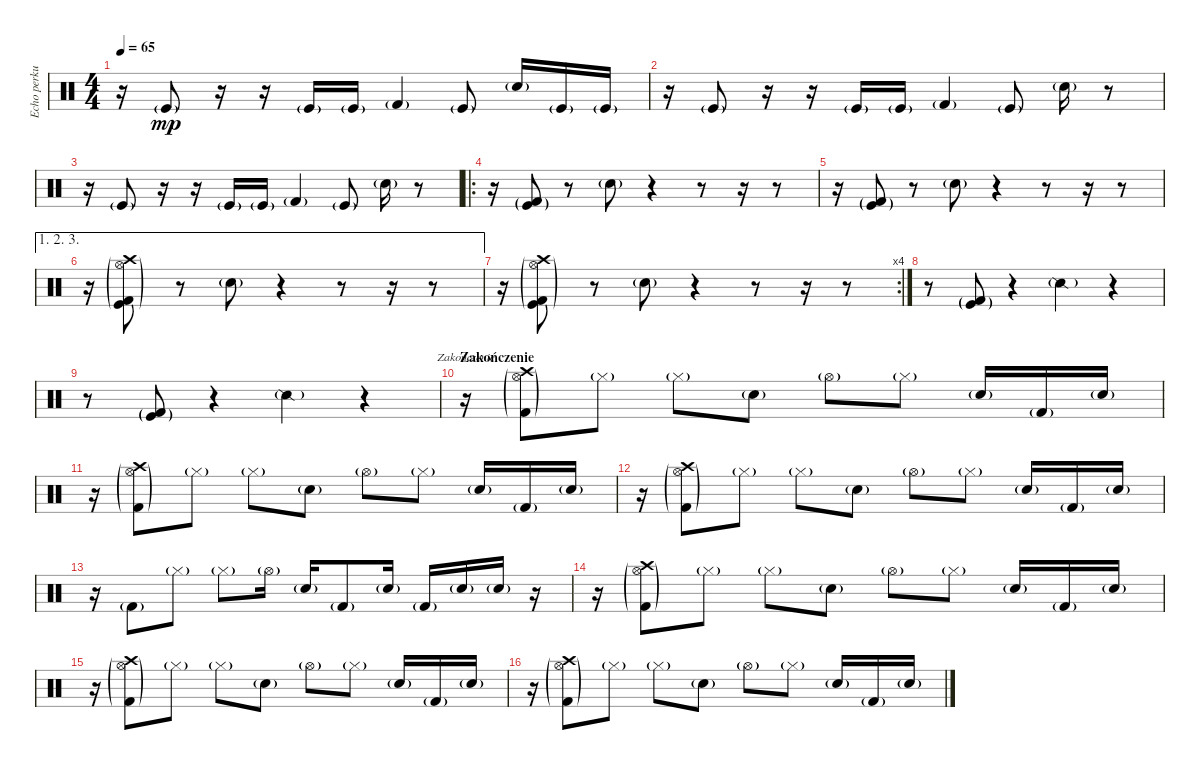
\track ("Echo perkusji 1" "Echo perku") {instrument percussion}
\staff {score}
\articulation defaults
\chord ("Zakończenie")
\ts (4 4)
\tempo 65
\clef neutral
\ks c
r.16{dy mp} "Kick (hit)"{g}.8 r.16 r.16 "Kick (hit)"{g}.16 "Kick (hit)"{g}.16 "Kick (hit) 2"{g}.4 "Kick (hit)"{g}.8 "Snare (hit) 2"{g}.16 "Kick (hit)"{g}.16 "Kick (hit)"{g}.16 |
r.16 "Kick (hit)"{g}.8 r.16 r.16 "Kick (hit)"{g}.16 "Kick (hit)"{g}.16 "Kick (hit) 2"{g}.4 "Kick (hit)"{g}.8 "Snare (hit) 2"{g}.16 r.8 |
r.16 "Kick (hit)"{g}.8 r.16 r.16 "Kick (hit)"{g}.16 "Kick (hit)"{g}.16 "Kick (hit) 2"{g}.4 "Kick (hit)"{g}.8 "Snare (hit) 2"{g}.16 r.8 |
\ro
r.16 ("Kick (hit)"{g} "Kick (hit) 2"{g}).8 r.8 "Snare (hit) 2"{g}.8 r.4 r.8 r.16 r.8 |
r.16 ("Kick (hit)"{g} "Kick (hit) 2"{g}).8 r.8 "Snare (hit) 2"{g}.8 r.4 r.8 r.16 r.8 |
\ae (1 2 3)
r.16 ("Kick (hit)"{g} "Kick (hit) 2"{g} "Hi-Hat (open)"{g} "Crash high (hit)"{g}).8 r.8 "Snare (hit) 2"{g}.8 r.4 r.8 r.16 r.8 |
\rc 4
r.16 ("Kick (hit)"{g} "Kick (hit) 2"{g} "Hi-Hat (open)"{g} "Crash high (hit)"{g}).8 r.8 "Snare (hit) 2"{g}.8 r.4 r.8 r.16 r.8 |
r.8 ("Kick (hit)"{g} "Kick (hit) 2"{g}).8 r.4 "Snare (side stick) 2"{g}.4 r.4 |
r.8 ("Kick (hit)"{g} "Kick (hit) 2"{g}).8 r.4 "Snare (side stick) 2"{g}.4 r.4 |
\section ("" "Zakończenie")
r.16{ch "Zakończenie"} ("Kick (hit) 2"{g} "Hi-Hat (open)"{g} "Crash high (hit)"{g}).8 "Hi-Hat (closed)"{g}.8 "Hi-Hat (closed)"{g}.8 "Snare (hit) 2"{g}.8 "Hi-Hat (open)"{g}.8 "Hi-Hat (closed)"{g}.8 "Snare (hit) 2"{g}.16 "Kick (hit) 2"{g}.16 "Snare (hit) 2"{g}.16 |
r.16 ("Kick (hit) 2"{g} "Hi-Hat (open)"{g} "Crash high (hit)"{g}).8 "Hi-Hat (closed)"{g}.8 "Hi-Hat (closed)"{g}.8 "Snare (hit) 2"{g}.8 "Hi-Hat (open)"{g}.8 "Hi-Hat (closed)"{g}.8 "Snare (hit) 2"{g}.16 "Kick (hit) 2"{g}.16 "Snare (hit) 2"{g}.16 |
r.16 ("Kick (hit) 2"{g} "Hi-Hat (open)"{g} "Crash high (hit)"{g}).8 "Hi-Hat (closed)"{g}.8 "Hi-Hat (closed)"{g}.8 "Snare (hit) 2"{g}.8 "Hi-Hat (open)"{g}.8 "Hi-Hat (closed)"{g}.8 "Snare (hit) 2"{g}.16 "Kick (hit) 2"{g}.16 "Snare (hit) 2"{g}.16 |
r.16 "Kick (hit) 2"{g}.8 "Hi-Hat (closed)"{g}.8 "Hi-Hat (closed)"{g}.8 "Hi-Hat (open)"{g}.16 "Snare (hit) 2"{g}.16 "Kick (hit) 2"{g}.8 "Snare (hit) 2"{g}.16 "Kick (hit) 2"{g}.16 "Snare (hit) 2"{g}.16 "Snare (hit) 2"{g}.16 r.16 |
r.16 ("Kick (hit) 2"{g} "Hi-Hat (open)"{g} "Crash high (hit)"{g}).8 "Hi-Hat (closed)"{g}.8 "Hi-Hat (closed)"{g}.8 "Snare (hit) 2"{g}.8 "Hi-Hat (open)"{g}.8 "Hi-Hat (closed)"{g}.8 "Snare (hit) 2"{g}.16 "Kick (hit) 2"{g}.16 "Snare (hit) 2"{g}.16 |
r.16 ("Kick (hit) 2"{g} "Hi-Hat (open)"{g} "Crash high (hit)"{g}).8 "Hi-Hat (closed)"{g}.8 "Hi-Hat (closed)"{g}.8 "Snare (hit) 2"{g}.8 "Hi-Hat (open)"{g}.8 "Hi-Hat (closed)"{g}.8 "Snare (hit) 2"{g}.16 "Kick (hit) 2"{g}.16 "Snare (hit) 2"{g}.16 |
r.16 ("Kick (hit) 2"{g} "Hi-Hat (open)"{g} "Crash high (hit)"{g}).8 "Hi-Hat (closed)"{g}.8 "Hi-Hat (closed)"{g}.8 "Snare (hit) 2"{g}.8 "Hi-Hat (open)"{g}.8 "Hi-Hat (closed)"{g}.8 "Snare (hit) 2"{g}.16 "Kick (hit) 2"{g}.16 "Snare (hit) 2"{g}.16
